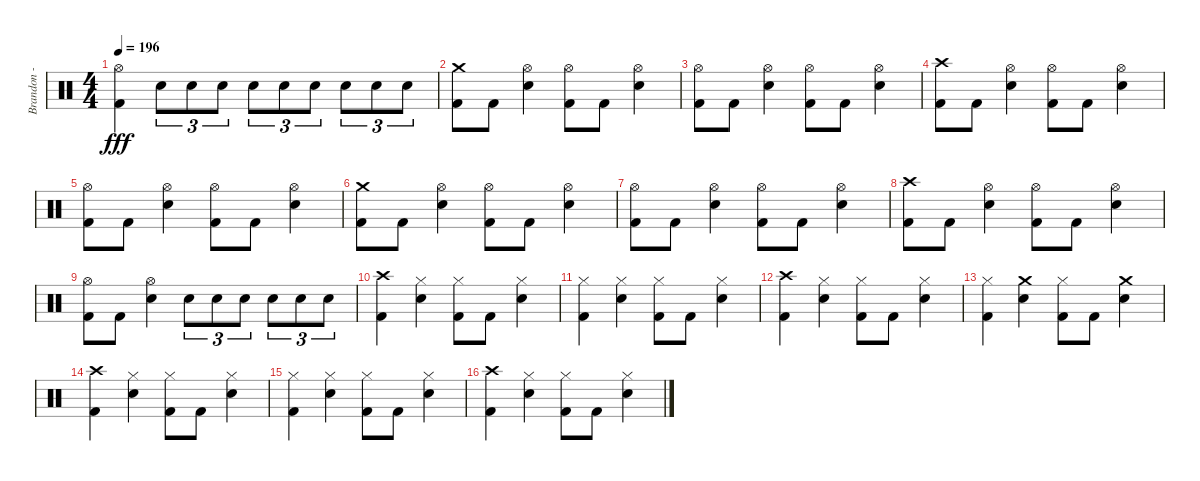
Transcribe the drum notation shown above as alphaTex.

\track ("Brandon - Drums" "Brandon - ") {instrument percussion}
\staff {score}
\articulation defaults
\ts (4 4)
\tempo 196
\clef neutral
\ks c
("Hi-Hat (open)" "Kick (hit) 2").4{dy fff} "Snare (hit) 2".8{tu (3 2)} "Snare (hit) 2".8{tu (3 2)} "Snare (hit) 2".8{tu (3 2)} "Snare (hit) 2".8{tu (3 2)} "Snare (hit) 2".8{tu (3 2)} "Snare (hit) 2".8{tu (3 2)} "Snare (hit) 2".8{tu (3 2)} "Snare (hit) 2".8{tu (3 2)} "Snare (hit) 2".8{tu (3 2)} |
("Crash medium (hit)" "Kick (hit) 2").8 "Kick (hit) 2".8 ("Hi-Hat (open)" "Snare (hit) 2").4 ("Hi-Hat (open)" "Kick (hit) 2").8 "Kick (hit) 2".8 ("Hi-Hat (open)" "Snare (hit) 2").4 |
("Hi-Hat (open)" "Kick (hit) 2").8 "Kick (hit) 2".8 ("Hi-Hat (open)" "Snare (hit) 2").4 ("Hi-Hat (open)" "Kick (hit) 2").8 "Kick (hit) 2".8 ("Hi-Hat (open)" "Snare (hit) 2").4 |
("Crash high (hit)" "Kick (hit) 2").8 "Kick (hit) 2".8 ("Hi-Hat (open)" "Snare (hit) 2").4 ("Hi-Hat (open)" "Kick (hit) 2").8 "Kick (hit) 2".8 ("Hi-Hat (open)" "Snare (hit) 2").4 |
("Hi-Hat (open)" "Kick (hit) 2").8 "Kick (hit) 2".8 ("Hi-Hat (open)" "Snare (hit) 2").4 ("Hi-Hat (open)" "Kick (hit) 2").8 "Kick (hit) 2".8 ("Hi-Hat (open)" "Snare (hit) 2").4 |
("Crash medium (hit)" "Kick (hit) 2").8 "Kick (hit) 2".8 ("Hi-Hat (open)" "Snare (hit) 2").4 ("Hi-Hat (open)" "Kick (hit) 2").8 "Kick (hit) 2".8 ("Hi-Hat (open)" "Snare (hit) 2").4 |
("Hi-Hat (open)" "Kick (hit) 2").8 "Kick (hit) 2".8 ("Hi-Hat (open)" "Snare (hit) 2").4 ("Hi-Hat (open)" "Kick (hit) 2").8 "Kick (hit) 2".8 ("Hi-Hat (open)" "Snare (hit) 2").4 |
("Crash high (hit)" "Kick (hit) 2").8 "Kick (hit) 2".8 ("Hi-Hat (open)" "Snare (hit) 2").4 ("Hi-Hat (open)" "Kick (hit) 2").8 "Kick (hit) 2".8 ("Hi-Hat (open)" "Snare (hit) 2").4 |
("Hi-Hat (open)" "Kick (hit) 2").8 "Kick (hit) 2".8 ("Hi-Hat (open)" "Snare (hit) 2").4 "Snare (hit) 2".8{tu (3 2)} "Snare (hit) 2".8{tu (3 2)} "Snare (hit) 2".8{tu (3 2)} "Snare (hit) 2".8{tu (3 2)} "Snare (hit) 2".8{tu (3 2)} "Snare (hit) 2".8{tu (3 2)} |
("Crash high (hit)" "Kick (hit) 2").4 ("Hi-Hat (closed)" "Snare (hit) 2").4 ("Hi-Hat (closed)" "Kick (hit) 2").8 "Kick (hit) 2".8 ("Hi-Hat (closed)" "Snare (hit) 2").4 |
("Hi-Hat (closed)" "Kick (hit) 2").4 ("Hi-Hat (closed)" "Snare (hit) 2").4 ("Hi-Hat (closed)" "Kick (hit) 2").8 "Kick (hit) 2".8 ("Hi-Hat (closed)" "Snare (hit) 2").4 |
("Crash high (hit)" "Kick (hit) 2").4 ("Hi-Hat (closed)" "Snare (hit) 2").4 ("Hi-Hat (closed)" "Kick (hit) 2").8 "Kick (hit) 2".8 ("Hi-Hat (closed)" "Snare (hit) 2").4 |
("Hi-Hat (closed)" "Kick (hit) 2").4 ("Crash medium (hit)" "Snare (hit) 2").4 ("Hi-Hat (closed)" "Kick (hit) 2").8 "Kick (hit) 2".8 ("Crash medium (hit)" "Snare (hit) 2").4 |
("Crash high (hit)" "Kick (hit) 2").4 ("Hi-Hat (closed)" "Snare (hit) 2").4 ("Hi-Hat (closed)" "Kick (hit) 2").8 "Kick (hit) 2".8 ("Hi-Hat (closed)" "Snare (hit) 2").4 |
("Hi-Hat (closed)" "Kick (hit) 2").4 ("Hi-Hat (closed)" "Snare (hit) 2").4 ("Hi-Hat (closed)" "Kick (hit) 2").8 "Kick (hit) 2".8 ("Hi-Hat (closed)" "Snare (hit) 2").4 |
("Crash high (hit)" "Kick (hit) 2").4 ("Hi-Hat (closed)" "Snare (hit) 2").4 ("Hi-Hat (closed)" "Kick (hit) 2").8 "Kick (hit) 2".8 ("Hi-Hat (closed)" "Snare (hit) 2").4
